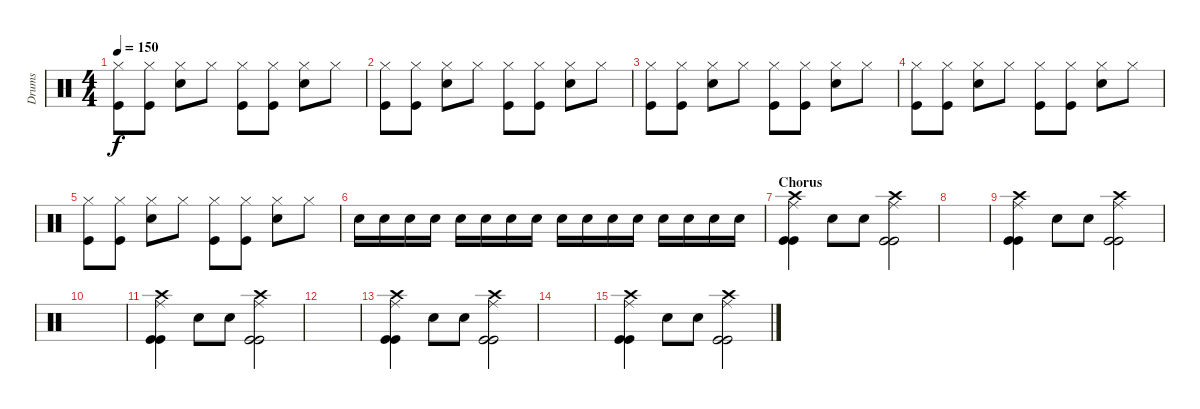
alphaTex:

\track ("Drums" "Drums") {instrument percussion}
\staff {score}
\articulation defaults
\ts (4 4)
\tempo 150
\clef neutral
\ks c
("Hi-Hat (closed)" "Kick (hit)").8{dy f} ("Hi-Hat (closed)" "Kick (hit)").8 ("Hi-Hat (closed)" "Snare (hit) 2").8 "Hi-Hat (closed)".8 ("Hi-Hat (closed)" "Kick (hit)").8 ("Hi-Hat (closed)" "Kick (hit)").8 ("Hi-Hat (closed)" "Snare (hit) 2").8 "Hi-Hat (closed)".8 |
("Hi-Hat (closed)" "Kick (hit)").8 ("Hi-Hat (closed)" "Kick (hit)").8 ("Hi-Hat (closed)" "Snare (hit) 2").8 "Hi-Hat (closed)".8 ("Hi-Hat (closed)" "Kick (hit)").8 ("Hi-Hat (closed)" "Kick (hit)").8 ("Hi-Hat (closed)" "Snare (hit) 2").8 "Hi-Hat (closed)".8 |
("Hi-Hat (closed)" "Kick (hit)").8 ("Hi-Hat (closed)" "Kick (hit)").8 ("Hi-Hat (closed)" "Snare (hit) 2").8 "Hi-Hat (closed)".8 ("Hi-Hat (closed)" "Kick (hit)").8 ("Hi-Hat (closed)" "Kick (hit)").8 ("Hi-Hat (closed)" "Snare (hit) 2").8 "Hi-Hat (closed)".8 |
("Hi-Hat (closed)" "Kick (hit)").8 ("Hi-Hat (closed)" "Kick (hit)").8 ("Hi-Hat (closed)" "Snare (hit) 2").8 "Hi-Hat (closed)".8 ("Hi-Hat (closed)" "Kick (hit)").8 ("Hi-Hat (closed)" "Kick (hit)").8 ("Hi-Hat (closed)" "Snare (hit) 2").8 "Hi-Hat (closed)".8 |
("Hi-Hat (closed)" "Kick (hit)").8 ("Hi-Hat (closed)" "Kick (hit)").8 ("Hi-Hat (closed)" "Snare (hit) 2").8 "Hi-Hat (closed)".8 ("Hi-Hat (closed)" "Kick (hit)").8 ("Hi-Hat (closed)" "Kick (hit)").8 ("Hi-Hat (closed)" "Snare (hit) 2").8 "Hi-Hat (closed)".8 |
"Snare (hit) 2".16 "Snare (hit) 2".16 "Snare (hit) 2".16 "Snare (hit) 2".16 "Snare (hit) 2".16 "Snare (hit) 2".16 "Snare (hit) 2".16 "Snare (hit) 2".16 "Snare (hit) 2".16 "Snare (hit) 2".16 "Snare (hit) 2".16 "Snare (hit) 2".16 "Snare (hit) 2".16 "Snare (hit) 2".16 "Snare (hit) 2".16 "Snare (hit) 2".16 |
\section ("" "Chorus")
("Crash high (hit)" "Ride (middle)" "Kick (hit)" "Kick (hit)").4 "Electric Snare (hit)".8 "Electric Snare (hit)".8 ("Crash high (hit)" "Ride (middle)" "Kick (hit)" "Kick (hit)").2 |
|
("Crash high (hit)" "Ride (middle)" "Kick (hit)" "Kick (hit)").4 "Electric Snare (hit)".8 "Electric Snare (hit)".8 ("Crash high (hit)" "Ride (middle)" "Kick (hit)" "Kick (hit)").2 |
|
("Crash high (hit)" "Ride (middle)" "Kick (hit)" "Kick (hit)").4 "Electric Snare (hit)".8 "Electric Snare (hit)".8 ("Crash high (hit)" "Ride (middle)" "Kick (hit)" "Kick (hit)").2 |
|
("Crash high (hit)" "Ride (middle)" "Kick (hit)" "Kick (hit)").4 "Electric Snare (hit)".8 "Electric Snare (hit)".8 ("Crash high (hit)" "Ride (middle)" "Kick (hit)" "Kick (hit)").2 |
|
("Crash high (hit)" "Ride (middle)" "Kick (hit)" "Kick (hit)").4 "Electric Snare (hit)".8 "Electric Snare (hit)".8 ("Crash high (hit)" "Ride (middle)" "Kick (hit)" "Kick (hit)").2
